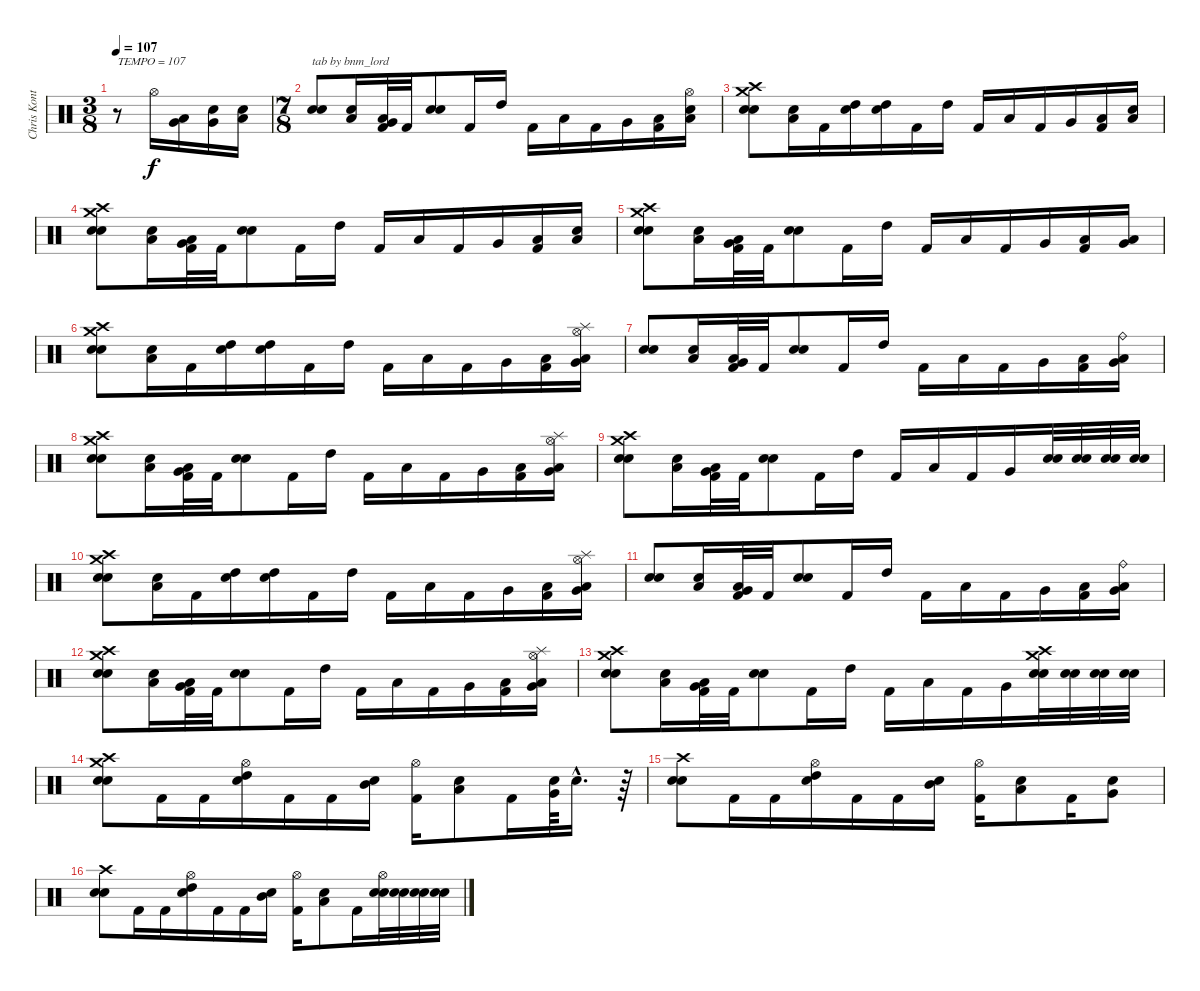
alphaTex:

\track ("Chris Kontos" "Chris Kont") {instrument percussion}
\staff {score}
\articulation defaults
\ts (3 8)
\tempo 107
\clef neutral
\ks c
r.8{txt "TEMPO = 107" dy f volume 13} "Hi-Hat (open)".16 ("Low Tom (hit)" "Very Low Tom (hit)").16 ("Very Low Tom (hit)" "Electric Snare (hit)").16 ("Low Floor Tom (hit)" "Electric Snare (hit)").16 |
\ts (7 8)
("Snare (hit) 2" "Electric Snare (hit)").8{txt "tab by bnm_lord"} ("Low Tom (hit)" "Electric Snare (hit)").16 ("Very Low Tom (hit)" "Low Floor Tom (hit)" "Kick (hit) 2").32 "Kick (hit) 2".32 ("Snare (hit) 2" "Electric Snare (hit)").8 "Kick (hit) 2".16 "High Tom (hit)".16 "Kick (hit) 2".16 "Low Tom (hit)".16 "Kick (hit) 2".16 "Very Low Tom (hit)".16 ("Low Tom (hit)" "Kick (hit) 2").16 ("Low Floor Tom (hit)" "Hi-Hat (open)" "Electric Snare (hit)").16 |
("Crash high (hit)" "Snare (hit) 2" "Crash medium (hit)" "Electric Snare (hit)").8 ("Low Tom (hit)" "Electric Snare (hit)").16 "Kick (hit) 2".16 ("High Tom (hit)" "Electric Snare (hit)").16 ("High Tom (hit)" "Electric Snare (hit)").16 "Kick (hit) 2".16 "High Tom (hit)".16 "Kick (hit) 2".16 "Low Tom (hit)".16 "Kick (hit) 2".16 "Very Low Tom (hit)".16 ("Low Tom (hit)" "Kick (hit) 2").16 ("Low Floor Tom (hit)" "Electric Snare (hit)").16 |
("Crash high (hit)" "Snare (hit) 2" "Crash medium (hit)" "Electric Snare (hit)").8 ("Low Tom (hit)" "Electric Snare (hit)").16 ("Very Low Tom (hit)" "Low Floor Tom (hit)" "Kick (hit) 2").32 "Kick (hit) 2".32 ("Snare (hit) 2" "Electric Snare (hit)").8 "Kick (hit) 2".16 "High Tom (hit)".16 "Kick (hit) 2".16 "Low Tom (hit)".16 "Kick (hit) 2".16 "Very Low Tom (hit)".16 ("Low Tom (hit)" "Kick (hit) 2").16 ("Low Floor Tom (hit)" "Electric Snare (hit)").16 |
("Crash high (hit)" "Snare (hit) 2" "Crash medium (hit)" "Electric Snare (hit)").8 ("Low Tom (hit)" "Electric Snare (hit)").16 ("Very Low Tom (hit)" "Low Floor Tom (hit)" "Kick (hit) 2").32 "Kick (hit) 2".32 ("Snare (hit) 2" "Electric Snare (hit)").8 "Kick (hit) 2".16 "High Tom (hit)".16 "Kick (hit) 2".16 "Low Tom (hit)".16 "Kick (hit) 2".16 "Very Low Tom (hit)".16 ("Low Tom (hit)" "Kick (hit) 2").16 ("Very Low Tom (hit)" "Low Floor Tom (hit)").16 |
("Crash high (hit)" "Snare (hit) 2" "Crash medium (hit)" "Electric Snare (hit)").8 ("Low Tom (hit)" "Electric Snare (hit)").16 "Kick (hit) 2".16 ("High Tom (hit)" "Electric Snare (hit)").16 ("High Tom (hit)" "Electric Snare (hit)").16 "Kick (hit) 2".16 "High Tom (hit)".16 "Kick (hit) 2".16 "Low Tom (hit)".16 "Kick (hit) 2".16 "Very Low Tom (hit)".16 ("Low Tom (hit)" "Kick (hit) 2").16 ("Splash (hit)" "Very Low Tom (hit)" "Hi-Hat (open)" "Low Floor Tom (hit)").16 |
("Snare (hit) 2" "Electric Snare (hit)").8 ("Low Tom (hit)" "Electric Snare (hit)").16 ("Very Low Tom (hit)" "Low Floor Tom (hit)" "Kick (hit) 2").32 "Kick (hit) 2".32 ("Snare (hit) 2" "Electric Snare (hit)").8 "Kick (hit) 2".16 "High Tom (hit)".16 "Kick (hit) 2".16 "Low Tom (hit)".16 "Kick (hit) 2".16 "Very Low Tom (hit)".16 ("Low Tom (hit)" "Kick (hit) 2").16 ("Very Low Tom (hit)" "Ride (bell)" "Low Floor Tom (hit)").16 |
("Crash high (hit)" "Snare (hit) 2" "Crash medium (hit)" "Electric Snare (hit)").8 ("Low Tom (hit)" "Electric Snare (hit)").16 ("Very Low Tom (hit)" "Low Floor Tom (hit)" "Kick (hit) 2").32 "Kick (hit) 2".32 ("Snare (hit) 2" "Electric Snare (hit)").8 "Kick (hit) 2".16 "High Tom (hit)".16 "Kick (hit) 2".16 "Low Tom (hit)".16 "Kick (hit) 2".16 "Very Low Tom (hit)".16 ("Low Tom (hit)" "Kick (hit) 2").16 ("Splash (hit)" "Very Low Tom (hit)" "Hi-Hat (open)" "Low Floor Tom (hit)").16 |
("Crash high (hit)" "Snare (hit) 2" "Crash medium (hit)" "Electric Snare (hit)").8 ("Low Tom (hit)" "Electric Snare (hit)").16 ("Very Low Tom (hit)" "Low Floor Tom (hit)" "Kick (hit) 2").32 "Kick (hit) 2".32 ("Snare (hit) 2" "Electric Snare (hit)").8 "Kick (hit) 2".16 "High Tom (hit)".16 "Kick (hit) 2".16 "Low Tom (hit)".16 "Kick (hit) 2".16 "Very Low Tom (hit)".16 ("Snare (hit) 2" "Electric Snare (hit)").32 ("Snare (hit) 2" "Electric Snare (hit)").32 ("Snare (hit) 2" "Electric Snare (hit)").32 ("Snare (hit) 2" "Electric Snare (hit)").32 |
("Crash high (hit)" "Snare (hit) 2" "Crash medium (hit)" "Electric Snare (hit)").8 ("Low Tom (hit)" "Electric Snare (hit)").16 "Kick (hit) 2".16 ("High Tom (hit)" "Electric Snare (hit)").16 ("High Tom (hit)" "Electric Snare (hit)").16 "Kick (hit) 2".16 "High Tom (hit)".16 "Kick (hit) 2".16 "Low Tom (hit)".16 "Kick (hit) 2".16 "Very Low Tom (hit)".16 ("Low Tom (hit)" "Kick (hit) 2").16 ("Splash (hit)" "Very Low Tom (hit)" "Hi-Hat (open)" "Low Floor Tom (hit)").16 |
("Snare (hit) 2" "Electric Snare (hit)").8 ("Low Tom (hit)" "Electric Snare (hit)").16 ("Very Low Tom (hit)" "Low Floor Tom (hit)" "Kick (hit) 2").32 "Kick (hit) 2".32 ("Snare (hit) 2" "Electric Snare (hit)").8 "Kick (hit) 2".16 "High Tom (hit)".16 "Kick (hit) 2".16 "Low Tom (hit)".16 "Kick (hit) 2".16 "Very Low Tom (hit)".16 ("Low Tom (hit)" "Kick (hit) 2").16 ("Very Low Tom (hit)" "Ride (bell)" "Low Floor Tom (hit)").16 |
("Crash high (hit)" "Snare (hit) 2" "Crash medium (hit)" "Electric Snare (hit)").8 ("Low Tom (hit)" "Electric Snare (hit)").16 ("Very Low Tom (hit)" "Low Floor Tom (hit)" "Kick (hit) 2").32 "Kick (hit) 2".32 ("Snare (hit) 2" "Electric Snare (hit)").8 "Kick (hit) 2".16 "High Tom (hit)".16 "Kick (hit) 2".16 "Low Tom (hit)".16 "Kick (hit) 2".16 "Very Low Tom (hit)".16 ("Low Tom (hit)" "Kick (hit) 2").16 ("Splash (hit)" "Very Low Tom (hit)" "Hi-Hat (open)" "Low Floor Tom (hit)").16 |
("Crash high (hit)" "Snare (hit) 2" "Crash medium (hit)" "Electric Snare (hit)").8 ("Low Tom (hit)" "Electric Snare (hit)").16 ("Very Low Tom (hit)" "Low Floor Tom (hit)" "Kick (hit) 2").32 "Kick (hit) 2".32 ("Snare (hit) 2" "Electric Snare (hit)").8 "Kick (hit) 2".16 "High Tom (hit)".16 "Kick (hit) 2".16 "Low Tom (hit)".16 "Kick (hit) 2".16 "Very Low Tom (hit)".16 ("Crash high (hit)" "Snare (hit) 2" "Crash medium (hit)" "Electric Snare (hit)").32 ("Snare (hit) 2" "Electric Snare (hit)").32 ("Snare (hit) 2" "Electric Snare (hit)").32 ("Snare (hit) 2" "Electric Snare (hit)").32 |
("Crash high (hit)" "Snare (hit) 2" "Crash medium (hit)" "Electric Snare (hit)").8{volume 16} "Kick (hit) 2".16 "Kick (hit) 2".16 ("High Tom (hit)" "Hi-Hat (open)" "Snare (hit) 2").16 "Kick (hit) 2".16 "Kick (hit) 2".16 ("Mid Tom (hit)" "Snare (hit) 2").16 ("Hi-Hat (open)" "Kick (hit) 2").16 ("Low Tom (hit)" "Snare (hit) 2").8 "Kick (hit) 2".16 ("Very Low Tom (hit)" "Electric Snare (hit)").64 "Electric Snare (hit)"{hac}.16{d} r.64 |
("Crash high (hit)" "Snare (hit) 2" "Electric Snare (hit)").8 "Kick (hit) 2".16 "Kick (hit) 2".16 ("High Tom (hit)" "Hi-Hat (open)" "Snare (hit) 2").16 "Kick (hit) 2".16 "Kick (hit) 2".16 ("Mid Tom (hit)" "Snare (hit) 2").16 ("Hi-Hat (open)" "Kick (hit) 2").16 ("Low Tom (hit)" "Snare (hit) 2").8 "Kick (hit) 2".16 ("Very Low Tom (hit)" "Electric Snare (hit)").8 |
("Crash high (hit)" "Snare (hit) 2" "Electric Snare (hit)").8 "Kick (hit) 2".16 "Kick (hit) 2".16 ("High Tom (hit)" "Hi-Hat (open)" "Snare (hit) 2").16 "Kick (hit) 2".16 "Kick (hit) 2".16 ("Mid Tom (hit)" "Snare (hit) 2").16 ("Hi-Hat (open)" "Kick (hit) 2").16 ("Low Tom (hit)" "Snare (hit) 2").8 "Kick (hit) 2".16 ("Snare (hit) 2" "Hi-Hat (open)" "Electric Snare (hit)").32 ("Snare (hit) 2" "Electric Snare (hit)").32 ("Snare (hit) 2" "Electric Snare (hit)").32 ("Snare (hit) 2" "Electric Snare (hit)").32
